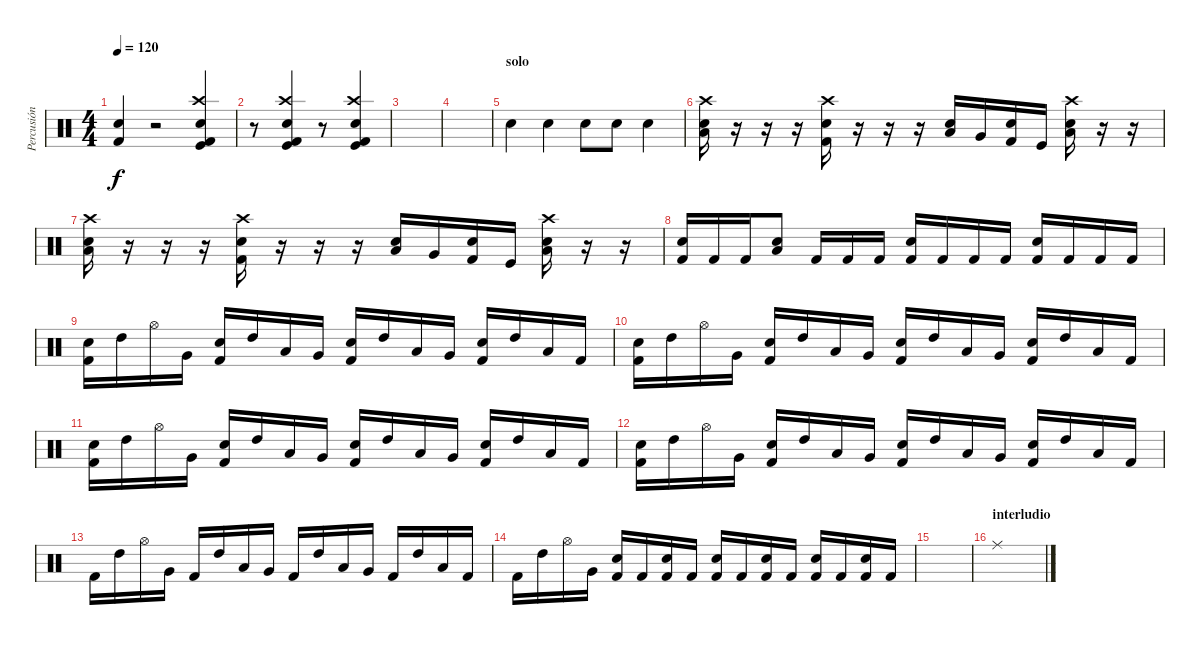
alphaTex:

\track ("Percusión" "Percusión") {instrument percussion}
\staff {score}
\articulation defaults
\ts (4 4)
\tempo 120
\clef neutral
\ks c
("Kick (hit) 2" "Electric Snare (hit)").4{dy f} r.2 ("Crash high (hit)" "Kick (hit)" "Kick (hit) 2" "Electric Snare (hit)").4 |
r.8 ("Crash high (hit)" "Kick (hit)" "Kick (hit) 2" "Electric Snare (hit)").4 r.8 ("Crash high (hit)" "Kick (hit)" "Kick (hit) 2" "Electric Snare (hit)").4 |
|
|
\section ("" "solo")
"Electric Snare (hit)".4 "Electric Snare (hit)".4 "Electric Snare (hit)".8 "Electric Snare (hit)".8 "Electric Snare (hit)".4 |
("Crash high (hit)" "Low Tom (hit)" "Electric Snare (hit)").16 r.16 r.16 r.16 ("Crash high (hit)" "Kick (hit) 2" "Electric Snare (hit)").16 r.16 r.16 r.16 ("Low Tom (hit)" "Electric Snare (hit)").16 "Very Low Tom (hit)".16 ("Kick (hit) 2" "Electric Snare (hit)").16 "Kick (hit)".16 ("Crash high (hit)" "Low Tom (hit)" "Electric Snare (hit)").16 r.16 r.16 |
("Crash high (hit)" "Low Tom (hit)" "Electric Snare (hit)").16 r.16 r.16 r.16 ("Crash high (hit)" "Kick (hit) 2" "Electric Snare (hit)").16 r.16 r.16 r.16 ("Low Tom (hit)" "Electric Snare (hit)").16 "Very Low Tom (hit)".16 ("Kick (hit) 2" "Electric Snare (hit)").16 "Kick (hit)".16 ("Crash high (hit)" "Low Tom (hit)" "Electric Snare (hit)").16 r.16 r.16 |
("Kick (hit) 2" "Electric Snare (hit)").16 "Kick (hit) 2".16 "Kick (hit) 2".16 ("Low Tom (hit)" "Electric Snare (hit)").8 "Kick (hit) 2".16 "Kick (hit) 2".16 "Kick (hit) 2".16 ("Kick (hit) 2" "Electric Snare (hit)").16 "Kick (hit) 2".16 "Kick (hit) 2".16 "Kick (hit) 2".16 ("Kick (hit) 2" "Electric Snare (hit)").16 "Kick (hit) 2".16 "Kick (hit) 2".16 "Kick (hit) 2".16 |
("Kick (hit) 2" "Electric Snare (hit)").16 "High Tom (hit)".16 "Hi-Hat (open)".16 "Very Low Tom (hit)".16 ("Kick (hit) 2" "Electric Snare (hit)").16 "High Tom (hit)".16 "Low Tom (hit)".16 "Very Low Tom (hit)".16 ("Kick (hit) 2" "Electric Snare (hit)").16 "High Tom (hit)".16 "Low Tom (hit)".16 "Very Low Tom (hit)".16 ("Kick (hit) 2" "Electric Snare (hit)").16 "High Tom (hit)".16 "Low Tom (hit)".16 "Kick (hit) 2".16 |
("Kick (hit) 2" "Electric Snare (hit)").16 "High Tom (hit)".16 "Hi-Hat (open)".16 "Very Low Tom (hit)".16 ("Kick (hit) 2" "Electric Snare (hit)").16 "High Tom (hit)".16 "Low Tom (hit)".16 "Very Low Tom (hit)".16 ("Kick (hit) 2" "Electric Snare (hit)").16 "High Tom (hit)".16 "Low Tom (hit)".16 "Very Low Tom (hit)".16 ("Kick (hit) 2" "Electric Snare (hit)").16 "High Tom (hit)".16 "Low Tom (hit)".16 "Kick (hit) 2".16 |
("Kick (hit) 2" "Electric Snare (hit)").16 "High Tom (hit)".16 "Hi-Hat (open)".16 "Very Low Tom (hit)".16 ("Kick (hit) 2" "Electric Snare (hit)").16 "High Tom (hit)".16 "Low Tom (hit)".16 "Very Low Tom (hit)".16 ("Kick (hit) 2" "Electric Snare (hit)").16 "High Tom (hit)".16 "Low Tom (hit)".16 "Very Low Tom (hit)".16 ("Kick (hit) 2" "Electric Snare (hit)").16 "High Tom (hit)".16 "Low Tom (hit)".16 "Kick (hit) 2".16 |
("Kick (hit) 2" "Electric Snare (hit)").16 "High Tom (hit)".16 "Hi-Hat (open)".16 "Very Low Tom (hit)".16 ("Kick (hit) 2" "Electric Snare (hit)").16 "High Tom (hit)".16 "Low Tom (hit)".16 "Very Low Tom (hit)".16 ("Kick (hit) 2" "Electric Snare (hit)").16 "High Tom (hit)".16 "Low Tom (hit)".16 "Very Low Tom (hit)".16 ("Kick (hit) 2" "Electric Snare (hit)").16 "High Tom (hit)".16 "Low Tom (hit)".16 "Kick (hit) 2".16 |
"Kick (hit) 2".16 "High Tom (hit)".16 "Hi-Hat (open)".16 "Very Low Tom (hit)".16 "Kick (hit) 2".16 "High Tom (hit)".16 "Low Tom (hit)".16 "Very Low Tom (hit)".16 "Kick (hit) 2".16 "High Tom (hit)".16 "Low Tom (hit)".16 "Very Low Tom (hit)".16 "Kick (hit) 2".16 "High Tom (hit)".16 "Low Tom (hit)".16 "Kick (hit) 2".16 |
"Kick (hit) 2".16 "High Tom (hit)".16 "Hi-Hat (open)".16 "Very Low Tom (hit)".16 ("Kick (hit) 2" "Electric Snare (hit)").16 "Kick (hit) 2".16 ("Kick (hit) 2" "Electric Snare (hit)").16 "Kick (hit) 2".16 ("Kick (hit) 2" "Electric Snare (hit)").16 "Kick (hit) 2".16 ("Kick (hit) 2" "Electric Snare (hit)").16 "Kick (hit) 2".16 ("Kick (hit) 2" "Electric Snare (hit)").16 "Kick (hit) 2".16 ("Kick (hit) 2" "Electric Snare (hit)").16 "Kick (hit) 2".16 |
|
\section ("" "interludio")
"Ride (middle)".1
